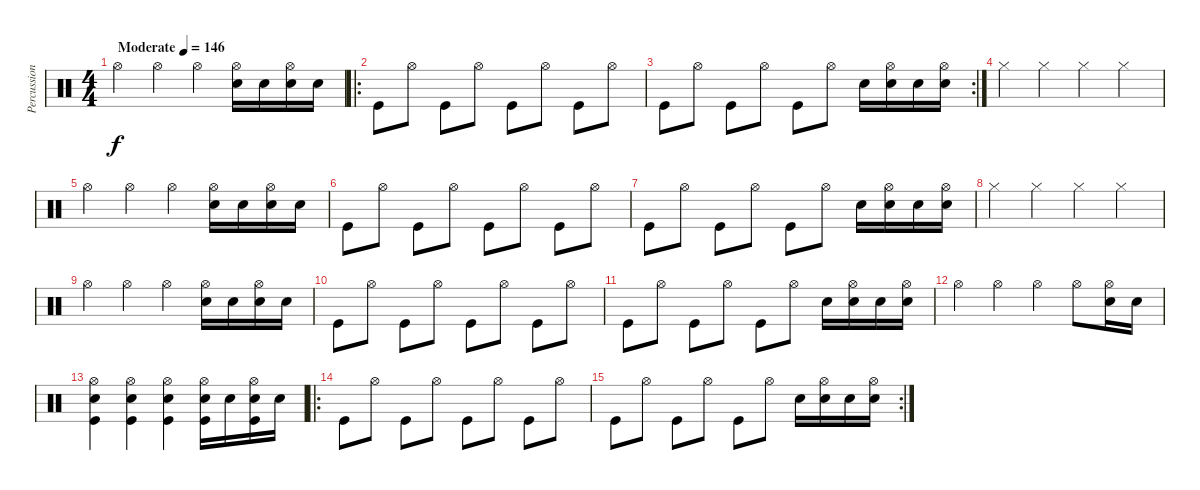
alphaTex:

\track ("Percussion" "Percussion") {instrument percussion}
\staff {score}
\articulation defaults
\ts (4 4)
\tempo (146 "Moderate")
\clef neutral
\ks c "Hi-Hat (open)".4{dy f} "Hi-Hat (open)".4 "Hi-Hat (open)".4
("Electric Snare (hit)" "Hi-Hat (open)").16 "Electric Snare (hit)".16 ("Electric Snare (hit)" "Hi-Hat (open)").16 "Electric Snare (hit)".16 |
\ro "Kick (hit)".8 "Hi-Hat (open)".8 "Kick (hit)".8 "Hi-Hat (open)".8 "Kick (hit)".8 "Hi-Hat (open)".8 "Kick (hit)".8 "Hi-Hat (open)".8
|
\rc 2 "Kick (hit)".8 "Hi-Hat (open)".8 "Kick (hit)".8 "Hi-Hat (open)".8 "Kick (hit)".8 "Hi-Hat (open)".8 "Electric Snare (hit)".16
("Hi-Hat (open)" "Electric Snare (hit)").16 "Electric Snare (hit)".16 ("Hi-Hat (open)" "Electric Snare (hit)").16 |
"Hi-Hat (closed)".4 "Hi-Hat (closed)".4 "Hi-Hat (closed)".4 "Hi-Hat (closed)".4 |
"Hi-Hat (open)".4 "Hi-Hat (open)".4 "Hi-Hat (open)".4 ("Electric Snare (hit)" "Hi-Hat (open)").16 "Electric Snare (hit)".16 ("Electric Snare (hit)" "Hi-Hat (open)").16 "Electric Snare (hit)".16 |
"Kick (hit)".8 "Hi-Hat (open)".8 "Kick (hit)".8 "Hi-Hat (open)".8 "Kick (hit)".8 "Hi-Hat (open)".8 "Kick (hit)".8 "Hi-Hat (open)".8 |
"Kick (hit)".8 "Hi-Hat (open)".8 "Kick (hit)".8 "Hi-Hat (open)".8 "Kick (hit)".8 "Hi-Hat (open)".8 "Electric Snare (hit)".16 ("Hi-Hat (open)" "Electric Snare (hit)").16 "Electric Snare (hit)".16 ("Hi-Hat (open)" "Electric Snare (hit)").16 |
"Hi-Hat (closed)".4 "Hi-Hat (closed)".4 "Hi-Hat (closed)".4 "Hi-Hat (closed)".4 |
"Hi-Hat (open)".4 "Hi-Hat (open)".4 "Hi-Hat (open)".4 ("Electric Snare (hit)" "Hi-Hat (open)").16 "Electric Snare (hit)".16 ("Electric Snare (hit)" "Hi-Hat (open)").16 "Electric Snare (hit)".16 |
"Kick (hit)".8 "Hi-Hat (open)".8 "Kick (hit)".8 "Hi-Hat (open)".8 "Kick (hit)".8 "Hi-Hat (open)".8 "Kick (hit)".8 "Hi-Hat (open)".8 |
"Kick (hit)".8 "Hi-Hat (open)".8 "Kick (hit)".8 "Hi-Hat (open)".8 "Kick (hit)".8 "Hi-Hat (open)".8 "Electric Snare (hit)".16 ("Hi-Hat (open)" "Electric Snare (hit)").16 "Electric Snare (hit)".16 ("Hi-Hat (open)" "Electric Snare (hit)").16 |
"Hi-Hat (open)".4 "Hi-Hat (open)".4 "Hi-Hat (open)".4 "Hi-Hat (open)".8 ("Electric Snare (hit)" "Hi-Hat (open)").16 "Electric Snare (hit)".16 |
("Kick (hit)" "Hi-Hat (open)" "Electric Snare (hit)").4 ("Kick (hit)" "Hi-Hat (open)" "Electric Snare (hit)").4 ("Kick (hit)" "Hi-Hat (open)" "Electric Snare (hit)").4 ("Electric Snare (hit)" "Hi-Hat (open)" "Kick (hit)").16 "Electric Snare (hit)".16 ("Electric Snare (hit)" "Hi-Hat (open)" "Kick (hit)").16 "Electric Snare (hit)".16 |
\ro "Kick (hit)".8 "Hi-Hat (open)".8 "Kick (hit)".8 "Hi-Hat (open)".8 "Kick (hit)".8 "Hi-Hat (open)".8 "Kick (hit)".8 "Hi-Hat (open)".8
|
\rc 2 "Kick (hit)".8 "Hi-Hat (open)".8 "Kick (hit)".8 "Hi-Hat (open)".8 "Kick (hit)".8 "Hi-Hat (open)".8 "Electric Snare (hit)".16
("Hi-Hat (open)" "Electric Snare (hit)").16 "Electric Snare (hit)".16 ("Hi-Hat (open)" "Electric Snare (hit)").16
